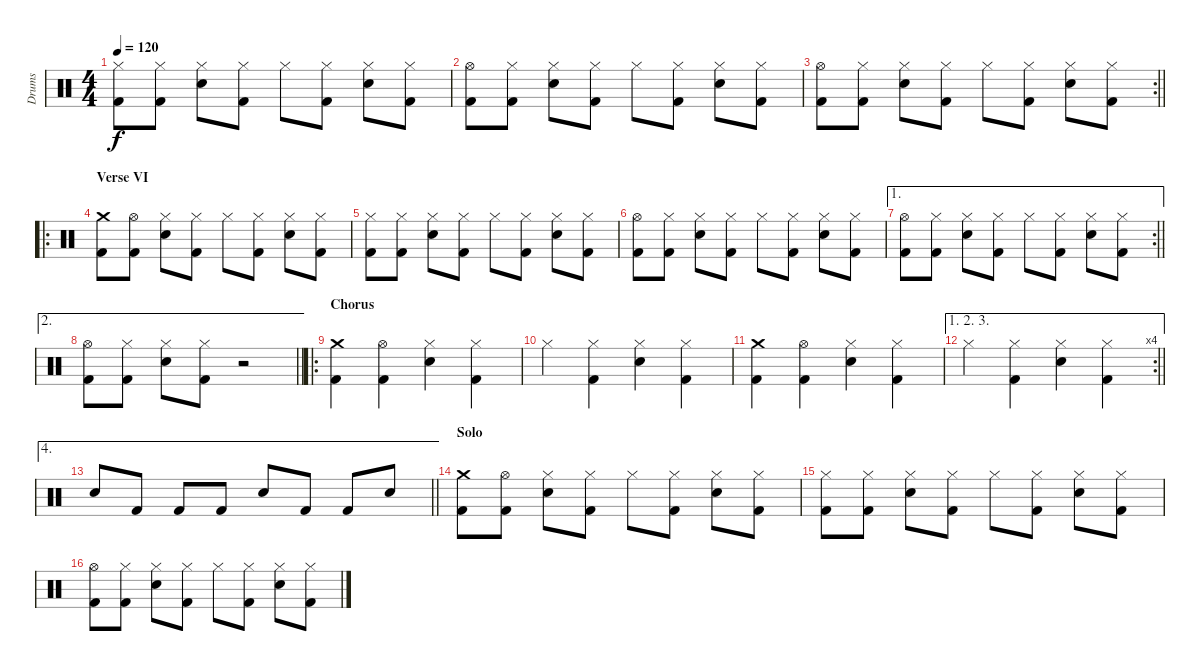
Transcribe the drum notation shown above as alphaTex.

\track ("Drums" "Drums") {instrument percussion}
\staff {score}
\articulation defaults
\ts (4 4)
\tempo 120
\clef neutral
\ks c
("Kick (hit) 2" "Hi-Hat (closed)").8{dy f} ("Kick (hit) 2" "Hi-Hat (closed)").8 ("Snare (hit) 2" "Hi-Hat (closed)").8 ("Kick (hit) 2" "Hi-Hat (closed)").8 "Hi-Hat (closed)".8 ("Kick (hit) 2" "Hi-Hat (closed)").8 ("Snare (hit) 2" "Hi-Hat (closed)").8 ("Kick (hit) 2" "Hi-Hat (closed)").8 |
("Kick (hit) 2" "Hi-Hat (open)").8 ("Kick (hit) 2" "Hi-Hat (closed)").8 ("Snare (hit) 2" "Hi-Hat (closed)").8 ("Kick (hit) 2" "Hi-Hat (closed)").8 "Hi-Hat (closed)".8 ("Kick (hit) 2" "Hi-Hat (closed)").8 ("Snare (hit) 2" "Hi-Hat (closed)").8 ("Kick (hit) 2" "Hi-Hat (closed)").8 |
\rc 2
\barLineRight lightlight
("Kick (hit) 2" "Hi-Hat (open)").8 ("Kick (hit) 2" "Hi-Hat (closed)").8 ("Snare (hit) 2" "Hi-Hat (closed)").8 ("Kick (hit) 2" "Hi-Hat (closed)").8 "Hi-Hat (closed)".8 ("Kick (hit) 2" "Hi-Hat (closed)").8 ("Snare (hit) 2" "Hi-Hat (closed)").8 ("Kick (hit) 2" "Hi-Hat (closed)").8 |
\ro
\section ("" "Verse VI")
("Kick (hit) 2" "Crash medium (hit)").8 ("Kick (hit) 2" "Hi-Hat (open)").8 ("Snare (hit) 2" "Hi-Hat (closed)").8 ("Kick (hit) 2" "Hi-Hat (closed)").8 "Hi-Hat (closed)".8 ("Kick (hit) 2" "Hi-Hat (closed)").8 ("Snare (hit) 2" "Hi-Hat (closed)").8 ("Kick (hit) 2" "Hi-Hat (closed)").8 |
("Kick (hit) 2" "Hi-Hat (closed)").8 ("Kick (hit) 2" "Hi-Hat (closed)").8 ("Snare (hit) 2" "Hi-Hat (closed)").8 ("Kick (hit) 2" "Hi-Hat (closed)").8 "Hi-Hat (closed)".8 ("Kick (hit) 2" "Hi-Hat (closed)").8 ("Snare (hit) 2" "Hi-Hat (closed)").8 ("Kick (hit) 2" "Hi-Hat (closed)").8 |
("Kick (hit) 2" "Hi-Hat (open)").8 ("Kick (hit) 2" "Hi-Hat (closed)").8 ("Snare (hit) 2" "Hi-Hat (closed)").8 ("Kick (hit) 2" "Hi-Hat (closed)").8 "Hi-Hat (closed)".8 ("Kick (hit) 2" "Hi-Hat (closed)").8 ("Snare (hit) 2" "Hi-Hat (closed)").8 ("Kick (hit) 2" "Hi-Hat (closed)").8 |
\ae 1
\rc 2
\barLineRight lightlight
("Kick (hit) 2" "Hi-Hat (open)").8 ("Kick (hit) 2" "Hi-Hat (closed)").8 ("Snare (hit) 2" "Hi-Hat (closed)").8 ("Kick (hit) 2" "Hi-Hat (closed)").8 "Hi-Hat (closed)".8 ("Kick (hit) 2" "Hi-Hat (closed)").8 ("Snare (hit) 2" "Hi-Hat (closed)").8 ("Kick (hit) 2" "Hi-Hat (closed)").8 |
\ae 2
\barLineRight lightlight
("Kick (hit) 2" "Hi-Hat (open)").8 ("Kick (hit) 2" "Hi-Hat (closed)").8 ("Snare (hit) 2" "Hi-Hat (closed)").8 ("Kick (hit) 2" "Hi-Hat (closed)").8 r.2 |
\ro
\section ("" "Chorus")
("Kick (hit) 2" "Crash medium (hit)").4 ("Kick (hit) 2" "Hi-Hat (open)").4 ("Snare (hit) 2" "Hi-Hat (closed)").4 ("Kick (hit) 2" "Hi-Hat (closed)").4 |
"Hi-Hat (closed)".4 ("Kick (hit) 2" "Hi-Hat (closed)").4 ("Snare (hit) 2" "Hi-Hat (closed)").4 ("Kick (hit) 2" "Hi-Hat (closed)").4 |
("Kick (hit) 2" "Crash medium (hit)").4 ("Kick (hit) 2" "Hi-Hat (open)").4 ("Snare (hit) 2" "Hi-Hat (closed)").4 ("Kick (hit) 2" "Hi-Hat (closed)").4 |
\ae (1 2 3)
\rc 4
\barLineRight lightlight "Hi-Hat (closed)".4
("Kick (hit) 2" "Hi-Hat (closed)").4 ("Snare (hit) 2" "Hi-Hat (closed)").4 ("Kick (hit) 2" "Hi-Hat (closed)").4 |
\ae 4
\barLineRight lightlight "Snare (hit) 2".8 "Kick (hit) 2".8 "Kick (hit) 2".8 "Kick (hit) 2".8 "Snare (hit) 2".8 "Kick (hit) 2".8 "Kick (hit) 2".8 "Snare (hit) 2".8
|
\section ("" "Solo")
("Kick (hit) 2" "Crash medium (hit)").8 ("Kick (hit) 2" "Hi-Hat (open)").8 ("Snare (hit) 2" "Hi-Hat (closed)").8 ("Kick (hit) 2" "Hi-Hat (closed)").8 "Hi-Hat (closed)".8 ("Kick (hit) 2" "Hi-Hat (closed)").8 ("Snare (hit) 2" "Hi-Hat (closed)").8 ("Kick (hit) 2" "Hi-Hat (closed)").8 |
("Kick (hit) 2" "Hi-Hat (closed)").8 ("Kick (hit) 2" "Hi-Hat (closed)").8 ("Snare (hit) 2" "Hi-Hat (closed)").8 ("Kick (hit) 2" "Hi-Hat (closed)").8 "Hi-Hat (closed)".8 ("Kick (hit) 2" "Hi-Hat (closed)").8 ("Snare (hit) 2" "Hi-Hat (closed)").8 ("Kick (hit) 2" "Hi-Hat (closed)").8 |
("Kick (hit) 2" "Hi-Hat (open)").8 ("Kick (hit) 2" "Hi-Hat (closed)").8 ("Snare (hit) 2" "Hi-Hat (closed)").8 ("Kick (hit) 2" "Hi-Hat (closed)").8 "Hi-Hat (closed)".8 ("Kick (hit) 2" "Hi-Hat (closed)").8 ("Snare (hit) 2" "Hi-Hat (closed)").8 ("Kick (hit) 2" "Hi-Hat (closed)").8
